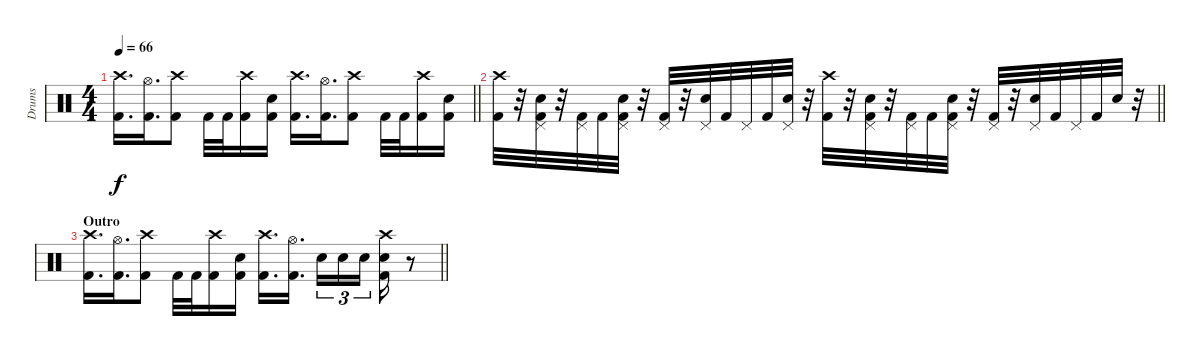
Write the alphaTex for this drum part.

\track ("Drums" "Drums") {instrument percussion}
\staff {score}
\articulation defaults
\ts (4 4)
\tempo 66
\clef neutral
\barLineRight lightlight
\ks c
("Crash high (hit)" "Kick (hit) 2").16{d dy f} ("Hi-Hat (open)" "Kick (hit) 2").16{d} ("Crash high (hit)" "Kick (hit) 2").8 "Kick (hit) 2".32 "Kick (hit) 2".32 ("Crash high (hit)" "Kick (hit) 2").16 ("Snare (hit) 2" "Kick (hit) 2").16 ("Crash high (hit)" "Kick (hit) 2").16{d} ("Hi-Hat (open)" "Kick (hit) 2").16{d} ("Crash high (hit)" "Kick (hit) 2").8 "Kick (hit) 2".32 "Kick (hit) 2".32 ("Crash high (hit)" "Kick (hit) 2").16 ("Snare (hit) 2" "Kick (hit) 2").16 |
\barLineRight lightlight
("Crash high (hit)" "Kick (hit) 2").32 r.32 ("Pedal Hi-Hat (hit)" "Snare (hit) 2" "Kick (hit) 2").32 r.32 ("Pedal Hi-Hat (hit)" "Kick (hit) 2").32 "Kick (hit) 2".32 ("Pedal Hi-Hat (hit)" "Snare (hit) 2" "Kick (hit) 2").32 r.32 ("Pedal Hi-Hat (hit)" "Kick (hit) 2").32 r.32 ("Pedal Hi-Hat (hit)" "Snare (hit) 2").32 "Kick (hit) 2".32 "Pedal Hi-Hat (hit)".32 "Kick (hit) 2".32 ("Pedal Hi-Hat (hit)" "Snare (hit) 2").32 r.32 ("Crash high (hit)" "Kick (hit) 2").32 r.32 ("Pedal Hi-Hat (hit)" "Snare (hit) 2" "Kick (hit) 2").32 r.32 ("Pedal Hi-Hat (hit)" "Kick (hit) 2").32 "Kick (hit) 2".32 ("Pedal Hi-Hat (hit)" "Snare (hit) 2" "Kick (hit) 2").32 r.32 ("Pedal Hi-Hat (hit)" "Kick (hit) 2").32 r.32 ("Pedal Hi-Hat (hit)" "Snare (hit) 2").32 "Kick (hit) 2".32 "Pedal Hi-Hat (hit)".32 "Kick (hit) 2".32 "Snare (hit) 2".32 r.32 |
\section ("" "Outro")
\barLineRight lightlight
("Crash high (hit)" "Kick (hit) 2").16{d} ("Hi-Hat (open)" "Kick (hit) 2").16{d} ("Crash high (hit)" "Kick (hit) 2").8 "Kick (hit) 2".32 "Kick (hit) 2".32 ("Crash high (hit)" "Kick (hit) 2").16 ("Snare (hit) 2" "Kick (hit) 2").16 ("Crash high (hit)" "Kick (hit) 2").16{d} ("Hi-Hat (open)" "Kick (hit) 2").16{d beam splitsecondary} "Snare (hit) 2".16{tu (3 2)} "Snare (hit) 2".16{tu (3 2)} "Snare (hit) 2".16{tu (3 2)} ("Crash high (hit)" "Snare (hit) 2" "Kick (hit) 2").16 r.8
